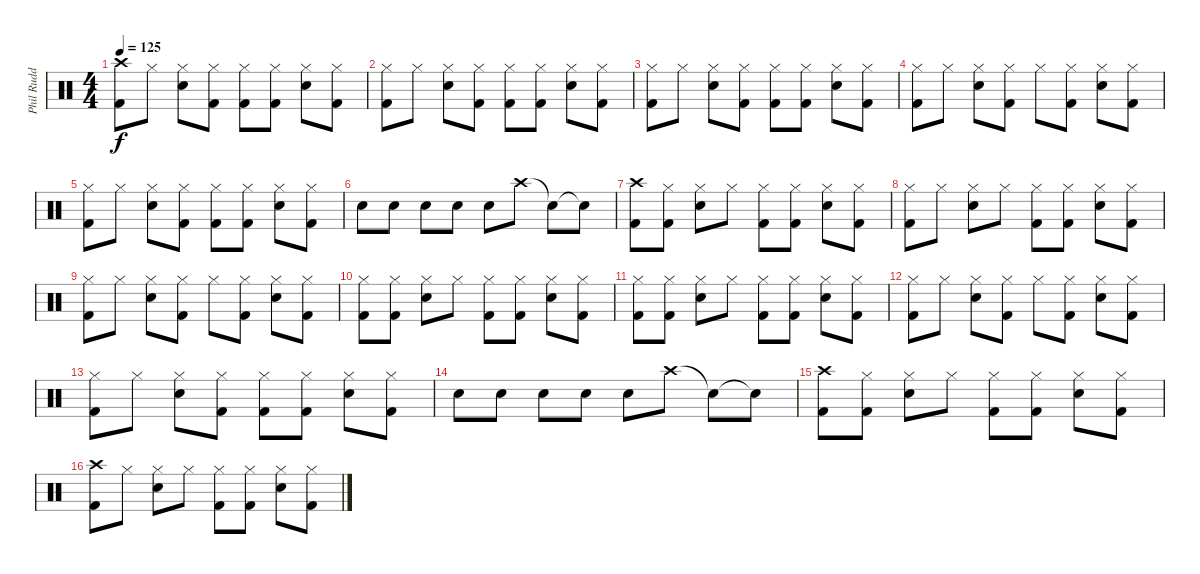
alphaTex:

\track ("Phil Rudd" "Phil Rudd") {instrument percussion}
\staff {score}
\articulation defaults
\ts (4 4)
\tempo 125
\clef neutral
\ks c
("Crash high (hit)" "Kick (hit) 2").8{dy f} "Hi-Hat (closed)".8 ("Hi-Hat (closed)" "Snare (hit) 2").8 ("Hi-Hat (closed)" "Kick (hit) 2").8 ("Hi-Hat (closed)" "Kick (hit) 2").8 ("Hi-Hat (closed)" "Kick (hit) 2").8 ("Hi-Hat (closed)" "Snare (hit) 2").8 ("Hi-Hat (closed)" "Kick (hit) 2").8 |
("Hi-Hat (closed)" "Kick (hit) 2").8 "Hi-Hat (closed)".8 ("Hi-Hat (closed)" "Snare (hit) 2").8 ("Hi-Hat (closed)" "Kick (hit) 2").8 ("Hi-Hat (closed)" "Kick (hit) 2").8 ("Hi-Hat (closed)" "Kick (hit) 2").8 ("Hi-Hat (closed)" "Snare (hit) 2").8 ("Hi-Hat (closed)" "Kick (hit) 2").8 |
("Hi-Hat (closed)" "Kick (hit) 2").8 "Hi-Hat (closed)".8 ("Hi-Hat (closed)" "Snare (hit) 2").8 ("Hi-Hat (closed)" "Kick (hit) 2").8 ("Hi-Hat (closed)" "Kick (hit) 2").8 ("Hi-Hat (closed)" "Kick (hit) 2").8 ("Hi-Hat (closed)" "Snare (hit) 2").8 ("Hi-Hat (closed)" "Kick (hit) 2").8 |
("Hi-Hat (closed)" "Kick (hit) 2").8 "Hi-Hat (closed)".8 ("Hi-Hat (closed)" "Snare (hit) 2").8 ("Hi-Hat (closed)" "Kick (hit) 2").8 "Hi-Hat (closed)".8 ("Hi-Hat (closed)" "Kick (hit) 2").8 ("Hi-Hat (closed)" "Snare (hit) 2").8 ("Hi-Hat (closed)" "Kick (hit) 2").8 |
("Hi-Hat (closed)" "Kick (hit) 2").8 "Hi-Hat (closed)".8 ("Hi-Hat (closed)" "Snare (hit) 2").8 ("Hi-Hat (closed)" "Kick (hit) 2").8 ("Hi-Hat (closed)" "Kick (hit) 2").8 ("Hi-Hat (closed)" "Kick (hit) 2").8 ("Hi-Hat (closed)" "Snare (hit) 2").8 ("Hi-Hat (closed)" "Kick (hit) 2").8 |
"Snare (hit) 2".8 "Snare (hit) 2".8 "Snare (hit) 2".8 "Snare (hit) 2".8 "Snare (hit) 2".8 "Crash high (hit)".8 "Snare (hit)"{t}.8 "Snare (hit)"{t}.8 |
("Crash high (hit)" "Kick (hit) 2").8 ("Hi-Hat (closed)" "Kick (hit) 2").8 ("Hi-Hat (closed)" "Snare (hit) 2").8 "Hi-Hat (closed)".8 ("Hi-Hat (closed)" "Kick (hit) 2").8 ("Hi-Hat (closed)" "Kick (hit) 2").8 ("Hi-Hat (closed)" "Snare (hit) 2").8 ("Hi-Hat (closed)" "Kick (hit) 2").8 |
("Hi-Hat (closed)" "Kick (hit) 2").8 "Hi-Hat (closed)".8 ("Hi-Hat (closed)" "Snare (hit) 2").8 "Hi-Hat (closed)".8 ("Hi-Hat (closed)" "Kick (hit) 2").8 ("Hi-Hat (closed)" "Kick (hit) 2").8 ("Hi-Hat (closed)" "Snare (hit) 2").8 ("Hi-Hat (closed)" "Kick (hit) 2").8 |
("Hi-Hat (closed)" "Kick (hit) 2").8 "Hi-Hat (closed)".8 ("Hi-Hat (closed)" "Snare (hit) 2").8 ("Hi-Hat (closed)" "Kick (hit) 2").8 "Hi-Hat (closed)".8 ("Hi-Hat (closed)" "Kick (hit) 2").8 ("Hi-Hat (closed)" "Snare (hit) 2").8 ("Hi-Hat (closed)" "Kick (hit) 2").8 |
("Hi-Hat (closed)" "Kick (hit) 2").8 ("Hi-Hat (closed)" "Kick (hit) 2").8 ("Hi-Hat (closed)" "Snare (hit) 2").8 "Hi-Hat (closed)".8 ("Hi-Hat (closed)" "Kick (hit) 2").8 ("Hi-Hat (closed)" "Kick (hit) 2").8 ("Hi-Hat (closed)" "Snare (hit) 2").8 ("Hi-Hat (closed)" "Kick (hit) 2").8 |
("Hi-Hat (closed)" "Kick (hit) 2").8 ("Hi-Hat (closed)" "Kick (hit) 2").8 ("Hi-Hat (closed)" "Snare (hit) 2").8 "Hi-Hat (closed)".8 ("Hi-Hat (closed)" "Kick (hit) 2").8 ("Hi-Hat (closed)" "Kick (hit) 2").8 ("Hi-Hat (closed)" "Snare (hit) 2").8 ("Hi-Hat (closed)" "Kick (hit) 2").8 |
("Hi-Hat (closed)" "Kick (hit) 2").8 "Hi-Hat (closed)".8 ("Hi-Hat (closed)" "Snare (hit) 2").8 ("Hi-Hat (closed)" "Kick (hit) 2").8 "Hi-Hat (closed)".8 ("Hi-Hat (closed)" "Kick (hit) 2").8 ("Hi-Hat (closed)" "Snare (hit) 2").8 ("Hi-Hat (closed)" "Kick (hit) 2").8 |
("Hi-Hat (closed)" "Kick (hit) 2").8 "Hi-Hat (closed)".8 ("Hi-Hat (closed)" "Snare (hit) 2").8 ("Hi-Hat (closed)" "Kick (hit) 2").8 ("Hi-Hat (closed)" "Kick (hit) 2").8 ("Hi-Hat (closed)" "Kick (hit) 2").8 ("Hi-Hat (closed)" "Snare (hit) 2").8 ("Hi-Hat (closed)" "Kick (hit) 2").8 |
"Snare (hit) 2".8 "Snare (hit) 2".8 "Snare (hit) 2".8 "Snare (hit) 2".8 "Snare (hit) 2".8 "Crash high (hit)".8 "Snare (hit)"{t}.8 "Snare (hit)"{t}.8 |
("Crash high (hit)" "Kick (hit) 2").8 ("Hi-Hat (closed)" "Kick (hit) 2").8 ("Hi-Hat (closed)" "Snare (hit) 2").8 "Hi-Hat (closed)".8 ("Hi-Hat (closed)" "Kick (hit) 2").8 ("Hi-Hat (closed)" "Kick (hit) 2").8 ("Hi-Hat (closed)" "Snare (hit) 2").8 ("Hi-Hat (closed)" "Kick (hit) 2").8 |
("Crash high (hit)" "Kick (hit) 2").8 "Hi-Hat (closed)".8 ("Hi-Hat (closed)" "Snare (hit) 2").8 "Hi-Hat (closed)".8 ("Hi-Hat (closed)" "Kick (hit) 2").8 ("Hi-Hat (closed)" "Kick (hit) 2").8 ("Hi-Hat (closed)" "Snare (hit) 2").8 ("Hi-Hat (closed)" "Kick (hit) 2").8
